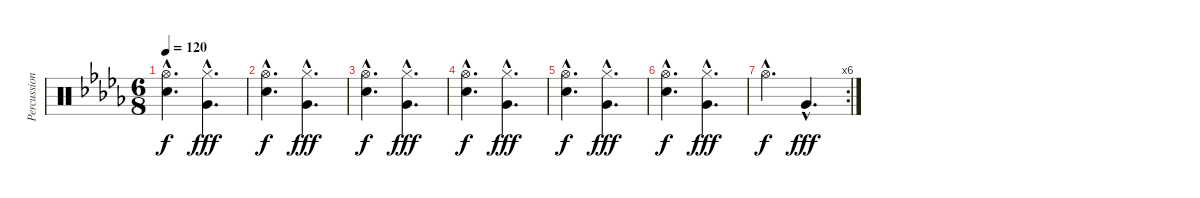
\track ("Percussions" "Percussion") {instrument percussion}
\staff {score}
\articulation defaults
\ts (6 8)
\tempo 120
\clef neutral
\ks db
("Hi-Hat (open)"{hac} "Snare (hit) 2"{hac}).4{d dy f} ("Hi-Hat (closed)"{hac} "Very Low Tom (hit)"{hac}).4{d dy fff} |
("Hi-Hat (open)"{hac} "Snare (hit) 2"{hac}).4{d dy f} ("Hi-Hat (closed)"{hac} "Very Low Tom (hit)"{hac}).4{d dy fff} |
("Hi-Hat (open)"{hac} "Snare (hit) 2"{hac}).4{d dy f} ("Hi-Hat (closed)"{hac} "Very Low Tom (hit)"{hac}).4{d dy fff} |
("Hi-Hat (open)"{hac} "Snare (hit) 2"{hac}).4{d dy f} ("Hi-Hat (closed)"{hac} "Very Low Tom (hit)"{hac}).4{d dy fff} |
("Hi-Hat (open)"{hac} "Snare (hit) 2"{hac}).4{d dy f} ("Hi-Hat (closed)"{hac} "Very Low Tom (hit)"{hac}).4{d dy fff} |
("Hi-Hat (open)"{hac} "Snare (hit) 2"{hac}).4{d dy f} ("Hi-Hat (closed)"{hac} "Very Low Tom (hit)"{hac}).4{d dy fff} |
\rc 6 "Hi-Hat (open)"{hac}.4{d dy f} "Very Low Tom (hit)"{hac}.4{d dy fff}
